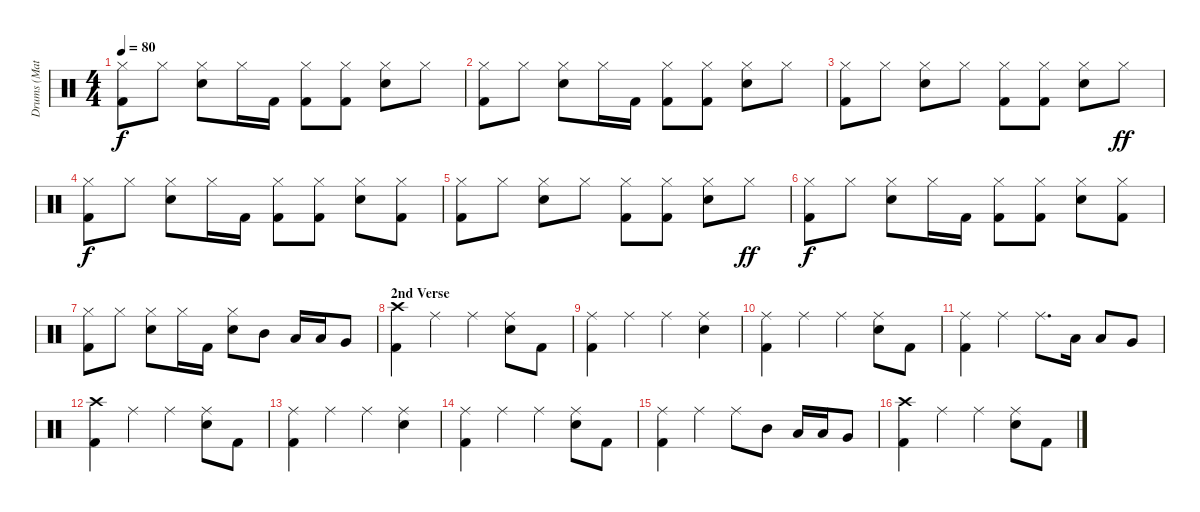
\track ("Drums (Matt)" "Drums (Mat") {instrument percussion}
\staff {score}
\articulation defaults
\ts (4 4)
\tempo 80
\clef neutral
\ks c
("Hi-Hat (closed)" "Kick (hit) 2").8{dy f} "Hi-Hat (closed)".8 ("Hi-Hat (closed)" "Snare (hit) 2").8 "Hi-Hat (closed)".16 "Kick (hit) 2".16 ("Hi-Hat (closed)" "Kick (hit) 2").8 ("Hi-Hat (closed)" "Kick (hit) 2").8 ("Hi-Hat (closed)" "Snare (hit) 2").8 "Hi-Hat (closed)".8 |
("Hi-Hat (closed)" "Kick (hit) 2").8 "Hi-Hat (closed)".8 ("Hi-Hat (closed)" "Snare (hit) 2").8 "Hi-Hat (closed)".16 "Kick (hit) 2".16 ("Hi-Hat (closed)" "Kick (hit) 2").8 ("Hi-Hat (closed)" "Kick (hit) 2").8 ("Hi-Hat (closed)" "Snare (hit) 2").8 "Hi-Hat (closed)".8 |
("Hi-Hat (closed)" "Kick (hit) 2").8 "Hi-Hat (closed)".8 ("Hi-Hat (closed)" "Snare (hit) 2").8 "Hi-Hat (closed)".8 ("Hi-Hat (closed)" "Kick (hit) 2").8 ("Hi-Hat (closed)" "Kick (hit) 2").8 ("Hi-Hat (closed)" "Snare (hit) 2").8 "Hi-Hat (closed)".8{dy ff} |
("Hi-Hat (closed)" "Kick (hit) 2").8{dy f} "Hi-Hat (closed)".8 ("Hi-Hat (closed)" "Snare (hit) 2").8 "Hi-Hat (closed)".16 "Kick (hit) 2".16 ("Hi-Hat (closed)" "Kick (hit) 2").8 ("Hi-Hat (closed)" "Kick (hit) 2").8 ("Hi-Hat (closed)" "Snare (hit) 2").8 ("Hi-Hat (closed)" "Kick (hit) 2").8 |
("Hi-Hat (closed)" "Kick (hit) 2").8 "Hi-Hat (closed)".8 ("Hi-Hat (closed)" "Snare (hit) 2").8 "Hi-Hat (closed)".8 ("Hi-Hat (closed)" "Kick (hit) 2").8 ("Hi-Hat (closed)" "Kick (hit) 2").8 ("Hi-Hat (closed)" "Snare (hit) 2").8 "Hi-Hat (closed)".8{dy ff} |
("Hi-Hat (closed)" "Kick (hit) 2").8{dy f} "Hi-Hat (closed)".8 ("Hi-Hat (closed)" "Snare (hit) 2").8 "Hi-Hat (closed)".16 "Kick (hit) 2".16 ("Hi-Hat (closed)" "Kick (hit) 2").8 ("Hi-Hat (closed)" "Kick (hit) 2").8 ("Hi-Hat (closed)" "Snare (hit) 2").8 ("Hi-Hat (closed)" "Kick (hit) 2").8 |
("Hi-Hat (closed)" "Kick (hit) 2").8 "Hi-Hat (closed)".8 ("Hi-Hat (closed)" "Snare (hit) 2").8 "Hi-Hat (closed)".16 "Kick (hit) 2".16 ("Hi-Hat (closed)" "Snare (hit) 2").8 "Mid Tom (hit)".8 "Low Tom (hit)".16 "Low Tom (hit)".16 "Very Low Tom (hit)".8 |
\section ("" "2nd Verse")
("Crash high (hit)" "Kick (hit) 2").4 "Ride (middle)".4 "Ride (middle)".4 ("Ride (middle)" "Snare (hit) 2").8 "Kick (hit) 2".8 |
("Ride (middle)" "Kick (hit) 2").4 "Ride (middle)".4 "Ride (middle)".4 ("Ride (middle)" "Snare (hit) 2").4 |
("Ride (middle)" "Kick (hit) 2").4 "Ride (middle)".4 "Ride (middle)".4 ("Ride (middle)" "Snare (hit) 2").8 "Kick (hit) 2".8 |
("Ride (middle)" "Kick (hit) 2").4 "Ride (middle)".4 "Ride (middle)".8{d} "Low Tom (hit)".16 "Low Tom (hit)".8 "Very Low Tom (hit)".8 |
("Crash high (hit)" "Kick (hit) 2").4 "Ride (middle)".4 "Ride (middle)".4 ("Ride (middle)" "Snare (hit) 2").8 "Kick (hit) 2".8 |
("Ride (middle)" "Kick (hit) 2").4 "Ride (middle)".4 "Ride (middle)".4 ("Ride (middle)" "Snare (hit) 2").4 |
("Ride (middle)" "Kick (hit) 2").4 "Ride (middle)".4 "Ride (middle)".4 ("Ride (middle)" "Snare (hit) 2").8 "Kick (hit) 2".8 |
("Ride (middle)" "Kick (hit) 2").4 "Ride (middle)".4 "Ride (middle)".8 "Mid Tom (hit)".8 "Low Tom (hit)".16 "Low Tom (hit)".16 "Very Low Tom (hit)".8 |
("Crash high (hit)" "Kick (hit) 2").4 "Ride (middle)".4 "Ride (middle)".4 ("Ride (middle)" "Snare (hit) 2").8 "Kick (hit) 2".8
